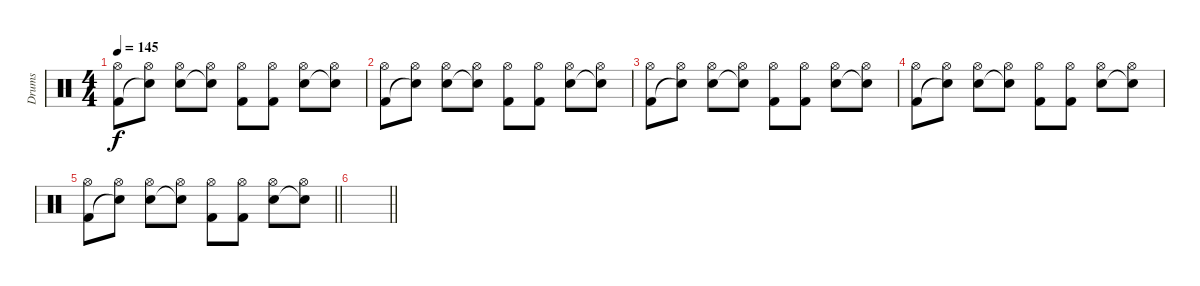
\track ("Drums" "Drums") {instrument percussion}
\staff {score}
\articulation defaults
\ts (4 4)
\tempo 145
\clef neutral
\ks c
("Hi-Hat (open)" "Kick (hit) 2").8{dy f} ("Hi-Hat (open)" "Snare (hit)"{t}).8 ("Hi-Hat (open)" "Electric Snare (hit)").8 ("Hi-Hat (open)" "Snare (hit)"{t}).8 ("Hi-Hat (open)" "Kick (hit) 2").8 ("Hi-Hat (open)" "Kick (hit) 2").8 ("Hi-Hat (open)" "Electric Snare (hit)").8 ("Hi-Hat (open)" "Snare (hit)"{t}).8 |
("Hi-Hat (open)" "Kick (hit) 2").8 ("Hi-Hat (open)" "Snare (hit)"{t}).8 ("Hi-Hat (open)" "Electric Snare (hit)").8 ("Hi-Hat (open)" "Snare (hit)"{t}).8 ("Hi-Hat (open)" "Kick (hit) 2").8 ("Hi-Hat (open)" "Kick (hit) 2").8 ("Hi-Hat (open)" "Electric Snare (hit)").8 ("Hi-Hat (open)" "Snare (hit)"{t}).8 |
("Hi-Hat (open)" "Kick (hit) 2").8 ("Hi-Hat (open)" "Snare (hit)"{t}).8 ("Hi-Hat (open)" "Electric Snare (hit)").8 ("Hi-Hat (open)" "Snare (hit)"{t}).8 ("Hi-Hat (open)" "Kick (hit) 2").8 ("Hi-Hat (open)" "Kick (hit) 2").8 ("Hi-Hat (open)" "Electric Snare (hit)").8 ("Hi-Hat (open)" "Snare (hit)"{t}).8 |
("Hi-Hat (open)" "Kick (hit) 2").8 ("Hi-Hat (open)" "Snare (hit)"{t}).8 ("Hi-Hat (open)" "Electric Snare (hit)").8 ("Hi-Hat (open)" "Snare (hit)"{t}).8 ("Hi-Hat (open)" "Kick (hit) 2").8 ("Hi-Hat (open)" "Kick (hit) 2").8 ("Hi-Hat (open)" "Electric Snare (hit)").8 ("Hi-Hat (open)" "Snare (hit)"{t}).8 |
\barLineRight lightlight
("Hi-Hat (open)" "Kick (hit) 2").8 ("Hi-Hat (open)" "Snare (hit)"{t}).8 ("Hi-Hat (open)" "Electric Snare (hit)").8 ("Hi-Hat (open)" "Snare (hit)"{t}).8 ("Hi-Hat (open)" "Kick (hit) 2").8 ("Hi-Hat (open)" "Kick (hit) 2").8 ("Hi-Hat (open)" "Electric Snare (hit)").8 ("Hi-Hat (open)" "Snare (hit)"{t}).8 |
\barLineRight lightlight
